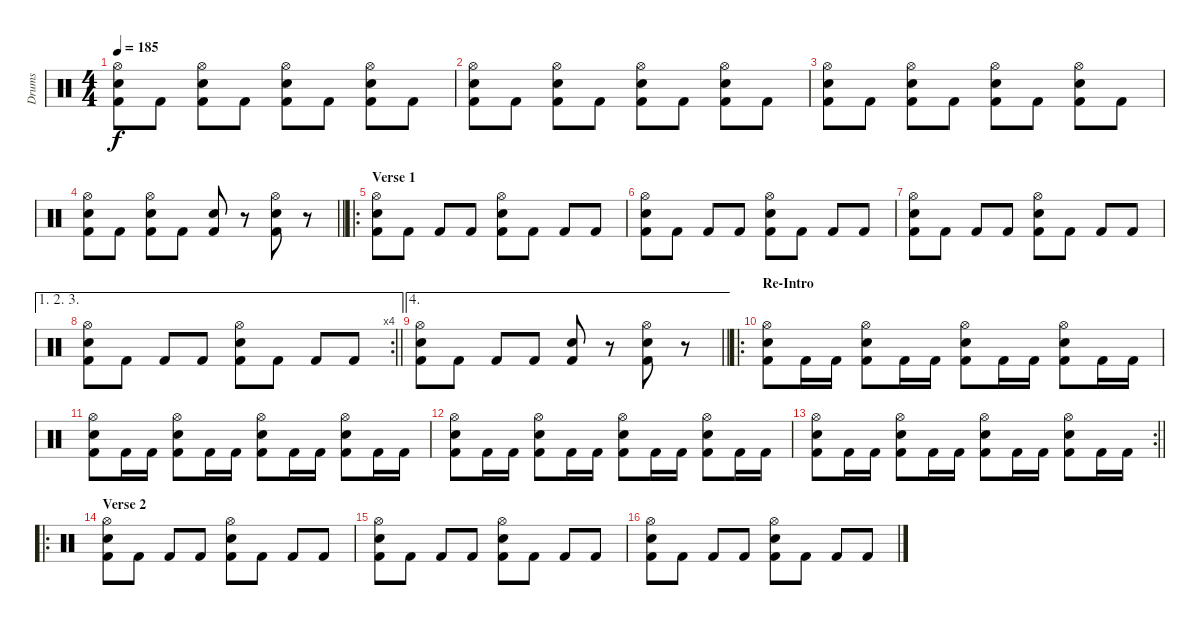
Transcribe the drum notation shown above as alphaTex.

\track ("Drums" "Drums") {instrument percussion}
\staff {score}
\articulation defaults
\ts (4 4)
\tempo 185
\clef neutral
\ks c
("Hi-Hat (open)" "Snare (hit) 2" "Kick (hit) 2").8{dy f} "Kick (hit) 2".8 ("Hi-Hat (open)" "Snare (hit) 2" "Kick (hit) 2").8 "Kick (hit) 2".8 ("Hi-Hat (open)" "Snare (hit) 2" "Kick (hit) 2").8 "Kick (hit) 2".8 ("Hi-Hat (open)" "Snare (hit) 2" "Kick (hit) 2").8 "Kick (hit) 2".8 |
("Hi-Hat (open)" "Snare (hit) 2" "Kick (hit) 2").8 "Kick (hit) 2".8 ("Hi-Hat (open)" "Snare (hit) 2" "Kick (hit) 2").8 "Kick (hit) 2".8 ("Hi-Hat (open)" "Snare (hit) 2" "Kick (hit) 2").8 "Kick (hit) 2".8 ("Hi-Hat (open)" "Snare (hit) 2" "Kick (hit) 2").8 "Kick (hit) 2".8 |
("Hi-Hat (open)" "Snare (hit) 2" "Kick (hit) 2").8 "Kick (hit) 2".8 ("Hi-Hat (open)" "Snare (hit) 2" "Kick (hit) 2").8 "Kick (hit) 2".8 ("Hi-Hat (open)" "Snare (hit) 2" "Kick (hit) 2").8 "Kick (hit) 2".8 ("Hi-Hat (open)" "Snare (hit) 2" "Kick (hit) 2").8 "Kick (hit) 2".8 |
\barLineRight lightlight
("Hi-Hat (open)" "Snare (hit) 2" "Kick (hit) 2").8 "Kick (hit) 2".8 ("Hi-Hat (open)" "Snare (hit) 2" "Kick (hit) 2").8 "Kick (hit) 2".8 ("Snare (hit) 2" "Kick (hit) 2").8 r.8 ("Hi-Hat (open)" "Snare (hit) 2" "Kick (hit) 2").8 r.8 |
\ro
\section ("" "Verse 1")
("Hi-Hat (open)" "Snare (hit) 2" "Kick (hit) 2").8 "Kick (hit) 2".8 "Kick (hit) 2".8 "Kick (hit) 2".8 ("Hi-Hat (open)" "Snare (hit) 2" "Kick (hit) 2").8 "Kick (hit) 2".8 "Kick (hit) 2".8 "Kick (hit) 2".8 |
("Hi-Hat (open)" "Snare (hit) 2" "Kick (hit) 2").8 "Kick (hit) 2".8 "Kick (hit) 2".8 "Kick (hit) 2".8 ("Hi-Hat (open)" "Snare (hit) 2" "Kick (hit) 2").8 "Kick (hit) 2".8 "Kick (hit) 2".8 "Kick (hit) 2".8 |
("Hi-Hat (open)" "Snare (hit) 2" "Kick (hit) 2").8 "Kick (hit) 2".8 "Kick (hit) 2".8 "Kick (hit) 2".8 ("Hi-Hat (open)" "Snare (hit) 2" "Kick (hit) 2").8 "Kick (hit) 2".8 "Kick (hit) 2".8 "Kick (hit) 2".8 |
\ae (1 2 3)
\rc 4
\barLineRight lightlight
("Hi-Hat (open)" "Snare (hit) 2" "Kick (hit) 2").8 "Kick (hit) 2".8 "Kick (hit) 2".8 "Kick (hit) 2".8 ("Hi-Hat (open)" "Snare (hit) 2" "Kick (hit) 2").8 "Kick (hit) 2".8 "Kick (hit) 2".8 "Kick (hit) 2".8 |
\ae 4
\barLineRight lightlight
("Hi-Hat (open)" "Snare (hit) 2" "Kick (hit) 2").8 "Kick (hit) 2".8 "Kick (hit) 2".8 "Kick (hit) 2".8 ("Snare (hit) 2" "Kick (hit) 2").8 r.8 ("Hi-Hat (open)" "Snare (hit) 2" "Kick (hit) 2").8 r.8 |
\ro
\section ("" "Re-Intro")
("Hi-Hat (open)" "Snare (hit) 2" "Kick (hit) 2").8 "Kick (hit) 2".16 "Kick (hit) 2".16 ("Hi-Hat (open)" "Snare (hit) 2" "Kick (hit) 2").8 "Kick (hit) 2".16 "Kick (hit) 2".16 ("Hi-Hat (open)" "Snare (hit) 2" "Kick (hit) 2").8 "Kick (hit) 2".16 "Kick (hit) 2".16 ("Hi-Hat (open)" "Snare (hit) 2" "Kick (hit) 2").8 "Kick (hit) 2".16 "Kick (hit) 2".16 |
("Hi-Hat (open)" "Snare (hit) 2" "Kick (hit) 2").8 "Kick (hit) 2".16 "Kick (hit) 2".16 ("Hi-Hat (open)" "Snare (hit) 2" "Kick (hit) 2").8 "Kick (hit) 2".16 "Kick (hit) 2".16 ("Hi-Hat (open)" "Snare (hit) 2" "Kick (hit) 2").8 "Kick (hit) 2".16 "Kick (hit) 2".16 ("Hi-Hat (open)" "Snare (hit) 2" "Kick (hit) 2").8 "Kick (hit) 2".16 "Kick (hit) 2".16 |
("Hi-Hat (open)" "Snare (hit) 2" "Kick (hit) 2").8 "Kick (hit) 2".16 "Kick (hit) 2".16 ("Hi-Hat (open)" "Snare (hit) 2" "Kick (hit) 2").8 "Kick (hit) 2".16 "Kick (hit) 2".16 ("Hi-Hat (open)" "Snare (hit) 2" "Kick (hit) 2").8 "Kick (hit) 2".16 "Kick (hit) 2".16 ("Hi-Hat (open)" "Snare (hit) 2" "Kick (hit) 2").8 "Kick (hit) 2".16 "Kick (hit) 2".16 |
\rc 2
\barLineRight lightlight
("Hi-Hat (open)" "Snare (hit) 2" "Kick (hit) 2").8 "Kick (hit) 2".16 "Kick (hit) 2".16 ("Hi-Hat (open)" "Snare (hit) 2" "Kick (hit) 2").8 "Kick (hit) 2".16 "Kick (hit) 2".16 ("Hi-Hat (open)" "Snare (hit) 2" "Kick (hit) 2").8 "Kick (hit) 2".16 "Kick (hit) 2".16 ("Hi-Hat (open)" "Snare (hit) 2" "Kick (hit) 2").8 "Kick (hit) 2".16 "Kick (hit) 2".16 |
\ro
\section ("" "Verse 2")
("Hi-Hat (open)" "Snare (hit) 2" "Kick (hit) 2").8 "Kick (hit) 2".8 "Kick (hit) 2".8 "Kick (hit) 2".8 ("Hi-Hat (open)" "Snare (hit) 2" "Kick (hit) 2").8 "Kick (hit) 2".8 "Kick (hit) 2".8 "Kick (hit) 2".8 |
("Hi-Hat (open)" "Snare (hit) 2" "Kick (hit) 2").8 "Kick (hit) 2".8 "Kick (hit) 2".8 "Kick (hit) 2".8 ("Hi-Hat (open)" "Snare (hit) 2" "Kick (hit) 2").8 "Kick (hit) 2".8 "Kick (hit) 2".8 "Kick (hit) 2".8 |
("Hi-Hat (open)" "Snare (hit) 2" "Kick (hit) 2").8 "Kick (hit) 2".8 "Kick (hit) 2".8 "Kick (hit) 2".8 ("Hi-Hat (open)" "Snare (hit) 2" "Kick (hit) 2").8 "Kick (hit) 2".8 "Kick (hit) 2".8 "Kick (hit) 2".8
